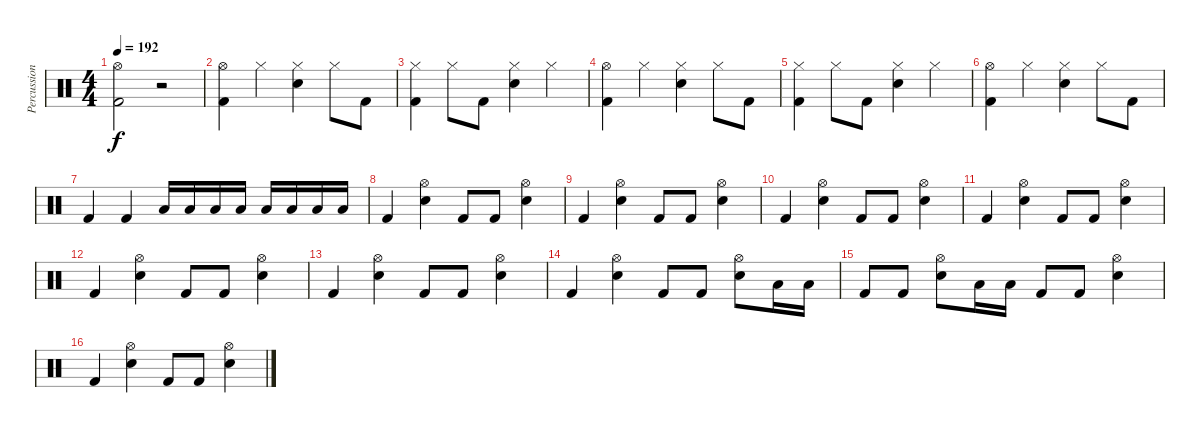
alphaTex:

\track ("Percussions" "Percussion") {instrument percussion}
\staff {score}
\articulation defaults
\ts (4 4)
\tempo 192
\clef neutral
\ks c
("Kick (hit) 2" "Hi-Hat (open)").2{dy f} r.2 |
("Kick (hit) 2" "Hi-Hat (open)").4 "Hi-Hat (closed)".4 ("Electric Snare (hit)" "Hi-Hat (closed)").4 "Hi-Hat (closed)".8 "Kick (hit) 2".8 |
("Kick (hit) 2" "Hi-Hat (closed)").4 "Hi-Hat (closed)".8 "Kick (hit) 2".8 ("Electric Snare (hit)" "Hi-Hat (closed)").4 "Hi-Hat (closed)".4 |
("Kick (hit) 2" "Hi-Hat (open)").4 "Hi-Hat (closed)".4 ("Electric Snare (hit)" "Hi-Hat (closed)").4 "Hi-Hat (closed)".8 "Kick (hit) 2".8 |
("Kick (hit) 2" "Hi-Hat (closed)").4 "Hi-Hat (closed)".8 "Kick (hit) 2".8 ("Electric Snare (hit)" "Hi-Hat (closed)").4 "Hi-Hat (closed)".4 |
("Kick (hit) 2" "Hi-Hat (open)").4 "Hi-Hat (closed)".4 ("Electric Snare (hit)" "Hi-Hat (closed)").4 "Hi-Hat (closed)".8 "Kick (hit) 2".8 |
"Kick (hit) 2".4 "Kick (hit) 2".4 "Low Tom (hit)".16 "Low Tom (hit)".16 "Low Tom (hit)".16 "Low Tom (hit)".16 "Low Tom (hit)".16 "Low Tom (hit)".16 "Low Tom (hit)".16 "Low Tom (hit)".16 |
"Kick (hit) 2".4 ("Electric Snare (hit)" "Hi-Hat (open)").4 "Kick (hit) 2".8 "Kick (hit) 2".8 ("Electric Snare (hit)" "Hi-Hat (open)").4 |
"Kick (hit) 2".4 ("Electric Snare (hit)" "Hi-Hat (open)").4 "Kick (hit) 2".8 "Kick (hit) 2".8 ("Electric Snare (hit)" "Hi-Hat (open)").4 |
"Kick (hit) 2".4 ("Electric Snare (hit)" "Hi-Hat (open)").4 "Kick (hit) 2".8 "Kick (hit) 2".8 ("Electric Snare (hit)" "Hi-Hat (open)").4 |
"Kick (hit) 2".4 ("Electric Snare (hit)" "Hi-Hat (open)").4 "Kick (hit) 2".8 "Kick (hit) 2".8 ("Electric Snare (hit)" "Hi-Hat (open)").4 |
"Kick (hit) 2".4 ("Electric Snare (hit)" "Hi-Hat (open)").4 "Kick (hit) 2".8 "Kick (hit) 2".8 ("Electric Snare (hit)" "Hi-Hat (open)").4 |
"Kick (hit) 2".4 ("Electric Snare (hit)" "Hi-Hat (open)").4 "Kick (hit) 2".8 "Kick (hit) 2".8 ("Electric Snare (hit)" "Hi-Hat (open)").4 |
"Kick (hit) 2".4 ("Electric Snare (hit)" "Hi-Hat (open)").4 "Kick (hit) 2".8 "Kick (hit) 2".8 ("Electric Snare (hit)" "Hi-Hat (open)").8 "Low Tom (hit)".16 "Low Tom (hit)".16 |
"Kick (hit) 2".8 "Kick (hit) 2".8 ("Electric Snare (hit)" "Hi-Hat (open)").8 "Low Tom (hit)".16 "Low Tom (hit)".16 "Kick (hit) 2".8 "Kick (hit) 2".8 ("Electric Snare (hit)" "Hi-Hat (open)").4 |
"Kick (hit) 2".4 ("Electric Snare (hit)" "Hi-Hat (open)").4 "Kick (hit) 2".8 "Kick (hit) 2".8 ("Electric Snare (hit)" "Hi-Hat (open)").4
